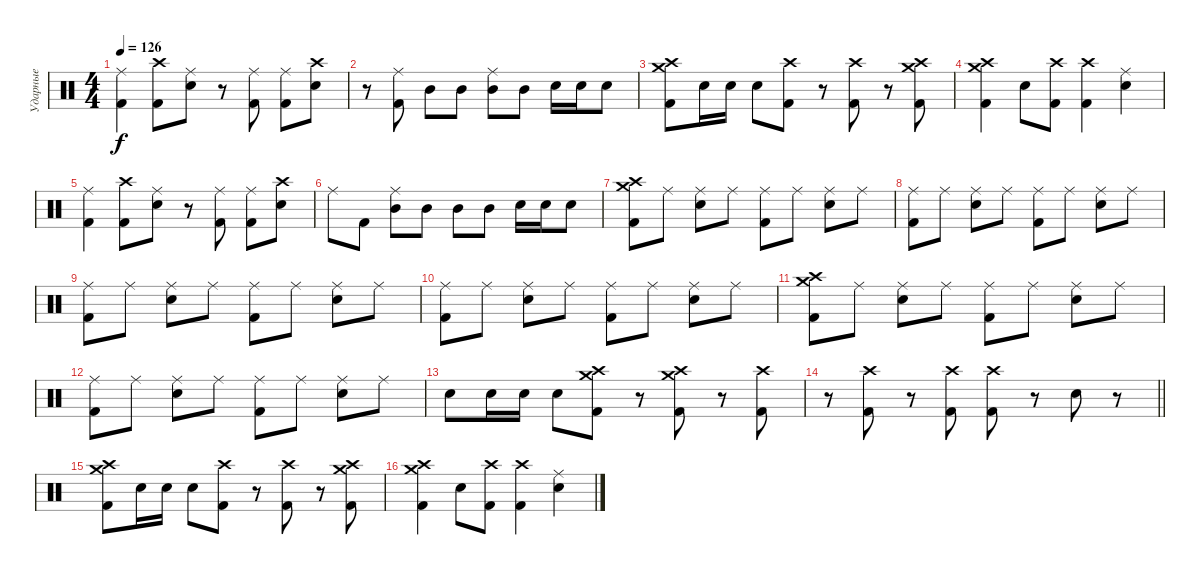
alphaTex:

\track ("Ударные" "Ударные") {instrument percussion}
\staff {score}
\articulation defaults
\ts (4 4)
\tempo 126
\clef neutral
\ks c
("Kick (hit) 2" "Ride (middle)").4{dy f} ("Kick (hit) 2" "Crash high (hit)").8 ("Snare (hit) 2" "Ride (middle)").8 r.8 ("Kick (hit) 2" "Ride (middle)").8 ("Kick (hit) 2" "Ride (middle)").8 ("Snare (hit) 2" "Crash high (hit)").8 |
r.8 ("Kick (hit) 2" "Ride (middle)").8 "Mid Tom (hit)".8 "Mid Tom (hit)".8 ("Mid Tom (hit)" "Ride (middle)").8 "Mid Tom (hit)".8 "Electric Snare (hit)".16 "Electric Snare (hit)".16 "Electric Snare (hit)".8 |
("Kick (hit) 2" "Crash high (hit)" "Crash medium (hit)").8 "Snare (hit) 2".16 "Electric Snare (hit)".16 "Snare (hit) 2".8 ("Kick (hit) 2" "Crash high (hit)").8 r.8 ("Kick (hit) 2" "Crash high (hit)").8 r.8 ("Kick (hit) 2" "Crash medium (hit)" "Crash high (hit)").8 |
("Kick (hit) 2" "Crash high (hit)" "Crash medium (hit)").4 "Snare (hit) 2".8 ("Kick (hit) 2" "Crash high (hit)").8 ("Kick (hit) 2" "Crash high (hit)").4 ("Snare (hit) 2" "Ride (middle)").4 |
("Kick (hit) 2" "Ride (middle)").4 ("Kick (hit) 2" "Crash high (hit)").8 ("Snare (hit) 2" "Ride (middle)").8 r.8 ("Kick (hit) 2" "Ride (middle)").8 ("Kick (hit) 2" "Ride (middle)").8 ("Snare (hit) 2" "Crash high (hit)").8 |
"Ride (middle)".8 "Kick (hit) 2".8 ("Mid Tom (hit)" "Ride (middle)").8 "Mid Tom (hit)".8 "Mid Tom (hit)".8 "Mid Tom (hit)".8 "Electric Snare (hit)".16 "Electric Snare (hit)".16 "Electric Snare (hit)".8 |
("Kick (hit) 2" "Crash high (hit)" "Crash medium (hit)").8 "Ride (middle)".8 ("Snare (hit) 2" "Ride (middle)").8 "Ride (middle)".8 ("Kick (hit) 2" "Ride (middle)").8 "Ride (middle)".8 ("Snare (hit) 2" "Ride (middle)").8 "Ride (middle)".8 |
("Kick (hit) 2" "Ride (middle)").8 "Ride (middle)".8 ("Snare (hit) 2" "Ride (middle)").8 "Ride (middle)".8 ("Kick (hit) 2" "Ride (middle)").8 "Ride (middle)".8 ("Snare (hit) 2" "Ride (middle)").8 "Ride (middle)".8 |
("Kick (hit) 2" "Ride (middle)").8 "Ride (middle)".8 ("Snare (hit) 2" "Ride (middle)").8 "Ride (middle)".8 ("Kick (hit) 2" "Ride (middle)").8 "Ride (middle)".8 ("Snare (hit) 2" "Ride (middle)").8 "Ride (middle)".8 |
("Kick (hit) 2" "Ride (middle)").8 "Ride (middle)".8 ("Snare (hit) 2" "Ride (middle)").8 "Ride (middle)".8 ("Kick (hit) 2" "Ride (middle)").8 "Ride (middle)".8 ("Snare (hit) 2" "Ride (middle)").8 "Ride (middle)".8 |
("Kick (hit) 2" "Crash high (hit)" "Crash medium (hit)").8 "Ride (middle)".8 ("Snare (hit) 2" "Ride (middle)").8 "Ride (middle)".8 ("Kick (hit) 2" "Ride (middle)").8 "Ride (middle)".8 ("Snare (hit) 2" "Ride (middle)").8 "Ride (middle)".8 |
("Kick (hit) 2" "Ride (middle)").8 "Ride (middle)".8 ("Snare (hit) 2" "Ride (middle)").8 "Ride (middle)".8 ("Kick (hit) 2" "Ride (middle)").8 "Ride (middle)".8 ("Snare (hit) 2" "Ride (middle)").8 "Ride (middle)".8 |
"Snare (hit) 2".8 "Snare (hit) 2".16 "Snare (hit) 2".16 "Snare (hit) 2".8 ("Kick (hit) 2" "Crash high (hit)" "Crash medium (hit)").8 r.8 ("Kick (hit) 2" "Crash high (hit)" "Crash medium (hit)").8 r.8 ("Kick (hit) 2" "Crash high (hit)").8 |
\barLineRight lightlight
r.8 ("Kick (hit) 2" "Crash high (hit)").8 r.8 ("Kick (hit) 2" "Crash high (hit)").8 ("Kick (hit) 2" "Crash high (hit)").8 r.8 "Snare (hit) 2".8 r.8 |
("Kick (hit) 2" "Crash high (hit)" "Crash medium (hit)").8 "Snare (hit) 2".16 "Electric Snare (hit)".16 "Snare (hit) 2".8 ("Kick (hit) 2" "Crash high (hit)").8 r.8 ("Kick (hit) 2" "Crash high (hit)").8 r.8 ("Kick (hit) 2" "Crash medium (hit)" "Crash high (hit)").8 |
("Kick (hit) 2" "Crash high (hit)" "Crash medium (hit)").4 "Snare (hit) 2".8 ("Kick (hit) 2" "Crash high (hit)").8 ("Kick (hit) 2" "Crash high (hit)").4 ("Snare (hit) 2" "Ride (middle)").4
